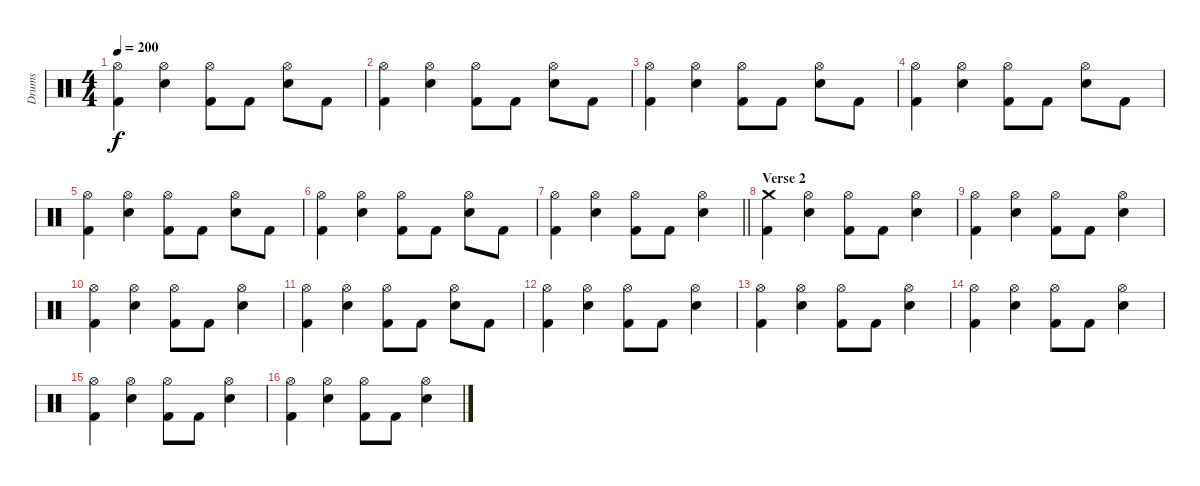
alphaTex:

\track ("Drums" "Drums") {instrument percussion}
\staff {score}
\articulation defaults
\ts (4 4)
\tempo 200
\clef neutral
\ks c
("Hi-Hat (open)" "Kick (hit) 2").4{dy f} ("Hi-Hat (open)" "Electric Snare (hit)").4 ("Hi-Hat (open)" "Kick (hit) 2").8 "Kick (hit) 2".8 ("Hi-Hat (open)" "Electric Snare (hit)").8 "Kick (hit) 2".8 |
("Hi-Hat (open)" "Kick (hit) 2").4 ("Hi-Hat (open)" "Electric Snare (hit)").4 ("Hi-Hat (open)" "Kick (hit) 2").8 "Kick (hit) 2".8 ("Hi-Hat (open)" "Electric Snare (hit)").8 "Kick (hit) 2".8 |
("Hi-Hat (open)" "Kick (hit) 2").4 ("Hi-Hat (open)" "Electric Snare (hit)").4 ("Hi-Hat (open)" "Kick (hit) 2").8 "Kick (hit) 2".8 ("Hi-Hat (open)" "Electric Snare (hit)").8 "Kick (hit) 2".8 |
("Hi-Hat (open)" "Kick (hit) 2").4 ("Hi-Hat (open)" "Electric Snare (hit)").4 ("Hi-Hat (open)" "Kick (hit) 2").8 "Kick (hit) 2".8 ("Hi-Hat (open)" "Electric Snare (hit)").8 "Kick (hit) 2".8 |
("Hi-Hat (open)" "Kick (hit) 2").4 ("Hi-Hat (open)" "Electric Snare (hit)").4 ("Hi-Hat (open)" "Kick (hit) 2").8 "Kick (hit) 2".8 ("Hi-Hat (open)" "Electric Snare (hit)").8 "Kick (hit) 2".8 |
("Hi-Hat (open)" "Kick (hit) 2").4 ("Hi-Hat (open)" "Electric Snare (hit)").4 ("Hi-Hat (open)" "Kick (hit) 2").8 "Kick (hit) 2".8 ("Hi-Hat (open)" "Electric Snare (hit)").8 "Kick (hit) 2".8 |
\barLineRight lightlight
("Hi-Hat (open)" "Kick (hit) 2").4 ("Hi-Hat (open)" "Electric Snare (hit)").4 ("Hi-Hat (open)" "Kick (hit) 2").8 "Kick (hit) 2".8 ("Hi-Hat (open)" "Electric Snare (hit)").4 |
\section ("" "Verse 2")
("Crash medium (hit)" "Kick (hit) 2").4 ("Hi-Hat (open)" "Electric Snare (hit)").4 ("Hi-Hat (open)" "Kick (hit) 2").8 "Kick (hit) 2".8 ("Hi-Hat (open)" "Electric Snare (hit)").4 |
("Hi-Hat (open)" "Kick (hit) 2").4 ("Hi-Hat (open)" "Electric Snare (hit)").4 ("Hi-Hat (open)" "Kick (hit) 2").8 "Kick (hit) 2".8 ("Hi-Hat (open)" "Electric Snare (hit)").4 |
("Hi-Hat (open)" "Kick (hit) 2").4 ("Hi-Hat (open)" "Electric Snare (hit)").4 ("Hi-Hat (open)" "Kick (hit) 2").8 "Kick (hit) 2".8 ("Hi-Hat (open)" "Electric Snare (hit)").4 |
("Hi-Hat (open)" "Kick (hit) 2").4 ("Hi-Hat (open)" "Electric Snare (hit)").4 ("Hi-Hat (open)" "Kick (hit) 2").8 "Kick (hit) 2".8 ("Hi-Hat (open)" "Electric Snare (hit)").8 "Kick (hit) 2".8 |
("Hi-Hat (open)" "Kick (hit) 2").4 ("Hi-Hat (open)" "Electric Snare (hit)").4 ("Hi-Hat (open)" "Kick (hit) 2").8 "Kick (hit) 2".8 ("Hi-Hat (open)" "Electric Snare (hit)").4 |
("Hi-Hat (open)" "Kick (hit) 2").4 ("Hi-Hat (open)" "Electric Snare (hit)").4 ("Hi-Hat (open)" "Kick (hit) 2").8 "Kick (hit) 2".8 ("Hi-Hat (open)" "Electric Snare (hit)").4 |
("Hi-Hat (open)" "Kick (hit) 2").4 ("Hi-Hat (open)" "Electric Snare (hit)").4 ("Hi-Hat (open)" "Kick (hit) 2").8 "Kick (hit) 2".8 ("Hi-Hat (open)" "Electric Snare (hit)").4 |
("Hi-Hat (open)" "Kick (hit) 2").4 ("Hi-Hat (open)" "Electric Snare (hit)").4 ("Hi-Hat (open)" "Kick (hit) 2").8 "Kick (hit) 2".8 ("Hi-Hat (open)" "Electric Snare (hit)").4 |
("Hi-Hat (open)" "Kick (hit) 2").4 ("Hi-Hat (open)" "Electric Snare (hit)").4 ("Hi-Hat (open)" "Kick (hit) 2").8 "Kick (hit) 2".8 ("Hi-Hat (open)" "Electric Snare (hit)").4
